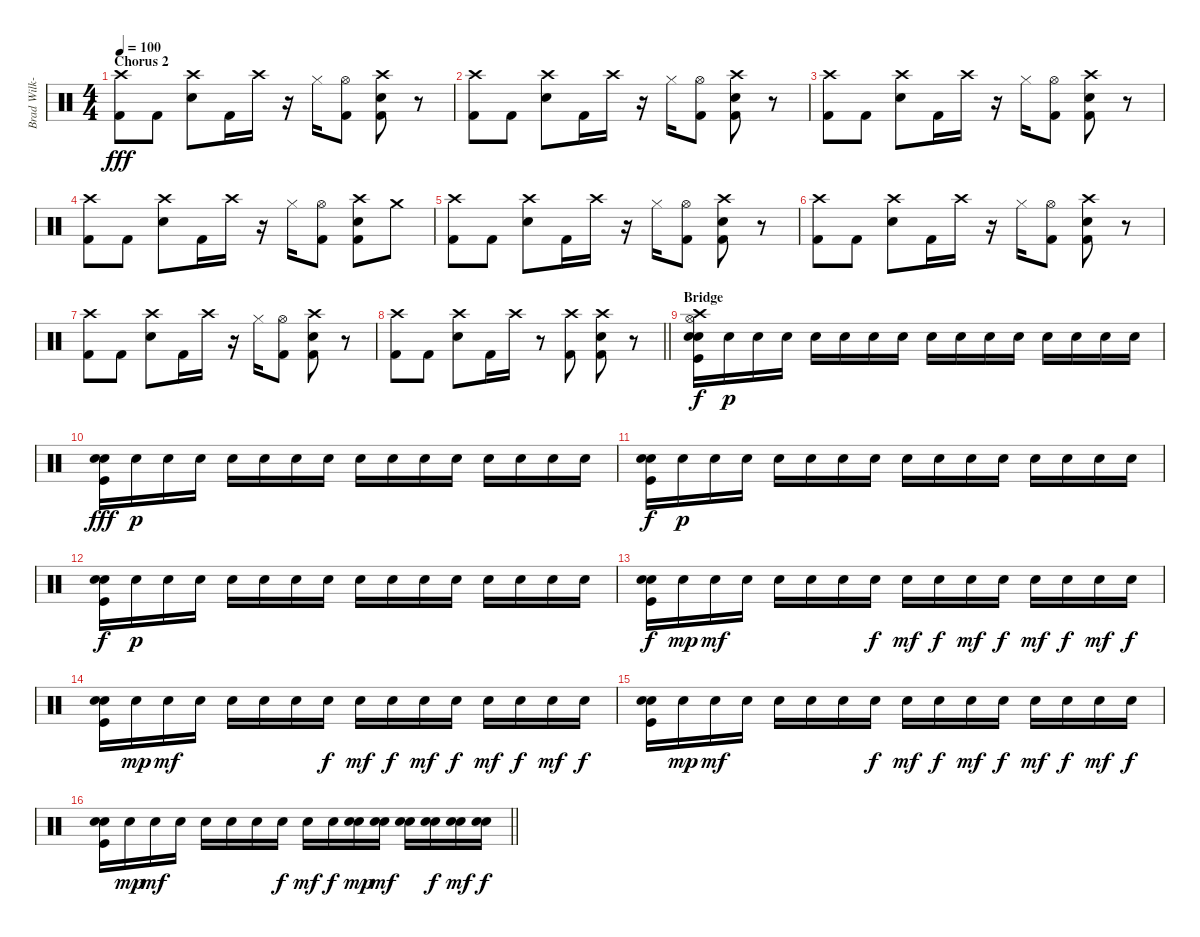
\track ("Brad Wilk-Drums" "Brad Wilk-") {instrument percussion}
\staff {score}
\articulation defaults
\ts (4 4)
\section ("" "Chorus 2")
\tempo 100
\clef neutral
\ks c
("Crash high (hit)" "Kick (hit) 2").8{dy fff} "Kick (hit) 2".8 ("Crash high (hit)" "Electric Snare (hit)").8 "Kick (hit) 2".16 "Crash high (hit)".16 r.16 "Hi-Hat (closed)".16 ("Hi-Hat (open)" "Kick (hit) 2").8 ("Crash high (hit)" "Electric Snare (hit)" "Kick (hit) 2").8 r.8 |
("Crash high (hit)" "Kick (hit) 2").8 "Kick (hit) 2".8 ("Crash high (hit)" "Electric Snare (hit)").8 "Kick (hit) 2".16 "Crash high (hit)".16 r.16 "Hi-Hat (closed)".16 ("Hi-Hat (open)" "Kick (hit) 2").8 ("Crash high (hit)" "Electric Snare (hit)" "Kick (hit) 2").8 r.8 |
("Crash high (hit)" "Kick (hit) 2").8 "Kick (hit) 2".8 ("Crash high (hit)" "Electric Snare (hit)").8 "Kick (hit) 2".16 "Crash high (hit)".16 r.16 "Hi-Hat (closed)".16 ("Hi-Hat (open)" "Kick (hit) 2").8 ("Crash high (hit)" "Electric Snare (hit)" "Kick (hit) 2").8 r.8 |
("Crash high (hit)" "Kick (hit) 2").8 "Kick (hit) 2".8 ("Crash high (hit)" "Electric Snare (hit)").8 "Kick (hit) 2".16 "Crash high (hit)".16 r.16 "Hi-Hat (closed)".16 ("Hi-Hat (open)" "Kick (hit) 2").8 ("Crash high (hit)" "Electric Snare (hit)" "Kick (hit) 2").8 "Crash medium (hit)".8 |
("Crash high (hit)" "Kick (hit) 2").8 "Kick (hit) 2".8 ("Crash high (hit)" "Electric Snare (hit)").8 "Kick (hit) 2".16 "Crash high (hit)".16 r.16 "Hi-Hat (closed)".16 ("Hi-Hat (open)" "Kick (hit) 2").8 ("Crash high (hit)" "Electric Snare (hit)" "Kick (hit) 2").8 r.8 |
("Crash high (hit)" "Kick (hit) 2").8 "Kick (hit) 2".8 ("Crash high (hit)" "Electric Snare (hit)").8 "Kick (hit) 2".16 "Crash high (hit)".16 r.16 "Hi-Hat (closed)".16 ("Hi-Hat (open)" "Kick (hit) 2").8 ("Crash high (hit)" "Electric Snare (hit)" "Kick (hit) 2").8 r.8 |
("Crash high (hit)" "Kick (hit) 2").8 "Kick (hit) 2".8 ("Crash high (hit)" "Electric Snare (hit)").8 "Kick (hit) 2".16 "Crash high (hit)".16 r.16 "Hi-Hat (closed)".16 ("Hi-Hat (open)" "Kick (hit) 2").8 ("Crash high (hit)" "Electric Snare (hit)" "Kick (hit) 2").8 r.8 |
\barLineRight lightlight
("Crash high (hit)" "Kick (hit) 2").8 "Kick (hit) 2".8 ("Crash high (hit)" "Electric Snare (hit)").8 "Kick (hit) 2".16 "Crash high (hit)".16 r.8 ("Crash high (hit)" "Kick (hit) 2").8 ("Crash high (hit)" "Electric Snare (hit)" "Kick (hit) 2").8 r.8 |
\section ("" "Bridge")
("Kick (hit)" "Snare (hit) 2" "Electric Snare (hit)" "Hi-Hat (open)" "Crash high (hit)").16{dy f} "Electric Snare (hit)".16{dy p} "Electric Snare (hit)".16 "Electric Snare (hit)".16 "Electric Snare (hit)".16 "Electric Snare (hit)".16 "Electric Snare (hit)".16 "Electric Snare (hit)".16 "Electric Snare (hit)".16 "Electric Snare (hit)".16 "Electric Snare (hit)".16 "Electric Snare (hit)".16 "Electric Snare (hit)".16 "Electric Snare (hit)".16 "Electric Snare (hit)".16 "Electric Snare (hit)".16 |
("Kick (hit)" "Snare (hit) 2" "Electric Snare (hit)").16{dy fff} "Electric Snare (hit)".16{dy p} "Electric Snare (hit)".16 "Electric Snare (hit)".16 "Electric Snare (hit)".16 "Electric Snare (hit)".16 "Electric Snare (hit)".16 "Electric Snare (hit)".16 "Electric Snare (hit)".16 "Electric Snare (hit)".16 "Electric Snare (hit)".16 "Electric Snare (hit)".16 "Electric Snare (hit)".16 "Electric Snare (hit)".16 "Electric Snare (hit)".16 "Electric Snare (hit)".16 |
("Kick (hit)" "Snare (hit) 2" "Electric Snare (hit)").16{dy f} "Electric Snare (hit)".16{dy p} "Electric Snare (hit)".16 "Electric Snare (hit)".16 "Electric Snare (hit)".16 "Electric Snare (hit)".16 "Electric Snare (hit)".16 "Electric Snare (hit)".16 "Electric Snare (hit)".16 "Electric Snare (hit)".16 "Electric Snare (hit)".16 "Electric Snare (hit)".16 "Electric Snare (hit)".16 "Electric Snare (hit)".16 "Electric Snare (hit)".16 "Electric Snare (hit)".16 |
("Kick (hit)" "Snare (hit) 2" "Electric Snare (hit)").16{dy f} "Electric Snare (hit)".16{dy p} "Electric Snare (hit)".16 "Electric Snare (hit)".16 "Electric Snare (hit)".16 "Electric Snare (hit)".16 "Electric Snare (hit)".16 "Electric Snare (hit)".16 "Electric Snare (hit)".16 "Electric Snare (hit)".16 "Electric Snare (hit)".16 "Electric Snare (hit)".16 "Electric Snare (hit)".16 "Electric Snare (hit)".16 "Electric Snare (hit)".16 "Electric Snare (hit)".16 |
("Kick (hit)" "Snare (hit) 2" "Electric Snare (hit)").16{dy f} "Electric Snare (hit)".16{dy mp} "Electric Snare (hit)".16{dy mf} "Electric Snare (hit)".16 "Electric Snare (hit)".16 "Electric Snare (hit)".16 "Electric Snare (hit)".16 "Electric Snare (hit)".16{dy f} "Electric Snare (hit)".16{dy mf} "Electric Snare (hit)".16{dy f} "Electric Snare (hit)".16{dy mf} "Electric Snare (hit)".16{dy f} "Electric Snare (hit)".16{dy mf} "Electric Snare (hit)".16{dy f} "Electric Snare (hit)".16{dy mf} "Electric Snare (hit)".16{dy f} |
("Kick (hit)" "Snare (hit) 2" "Electric Snare (hit)").16 "Electric Snare (hit)".16{dy mp} "Electric Snare (hit)".16{dy mf} "Electric Snare (hit)".16 "Electric Snare (hit)".16 "Electric Snare (hit)".16 "Electric Snare (hit)".16 "Electric Snare (hit)".16{dy f} "Electric Snare (hit)".16{dy mf} "Electric Snare (hit)".16{dy f} "Electric Snare (hit)".16{dy mf} "Electric Snare (hit)".16{dy f} "Electric Snare (hit)".16{dy mf} "Electric Snare (hit)".16{dy f} "Electric Snare (hit)".16{dy mf} "Electric Snare (hit)".16{dy f} |
("Kick (hit)" "Snare (hit) 2" "Electric Snare (hit)").16 "Electric Snare (hit)".16{dy mp} "Electric Snare (hit)".16{dy mf} "Electric Snare (hit)".16 "Electric Snare (hit)".16 "Electric Snare (hit)".16 "Electric Snare (hit)".16 "Electric Snare (hit)".16{dy f} "Electric Snare (hit)".16{dy mf} "Electric Snare (hit)".16{dy f} "Electric Snare (hit)".16{dy mf} "Electric Snare (hit)".16{dy f} "Electric Snare (hit)".16{dy mf} "Electric Snare (hit)".16{dy f} "Electric Snare (hit)".16{dy mf} "Electric Snare (hit)".16{dy f} |
\barLineRight lightlight
("Kick (hit)" "Snare (hit) 2" "Electric Snare (hit)").16 "Electric Snare (hit)".16{dy mp} "Electric Snare (hit)".16{dy mf} "Electric Snare (hit)".16 "Electric Snare (hit)".16 "Electric Snare (hit)".16 "Electric Snare (hit)".16 "Electric Snare (hit)".16{dy f} "Electric Snare (hit)".16{dy mf} "Electric Snare (hit)".16{dy f} ("Electric Snare (hit)" "Snare (hit) 2").16{dy mp} ("Electric Snare (hit)" "Snare (hit) 2").16{dy mf} ("Electric Snare (hit)" "Snare (hit) 2").16 ("Electric Snare (hit)" "Snare (hit) 2").16{dy f} ("Electric Snare (hit)" "Snare (hit) 2").16{dy mf} ("Electric Snare (hit)" "Snare (hit) 2").16{dy f}
